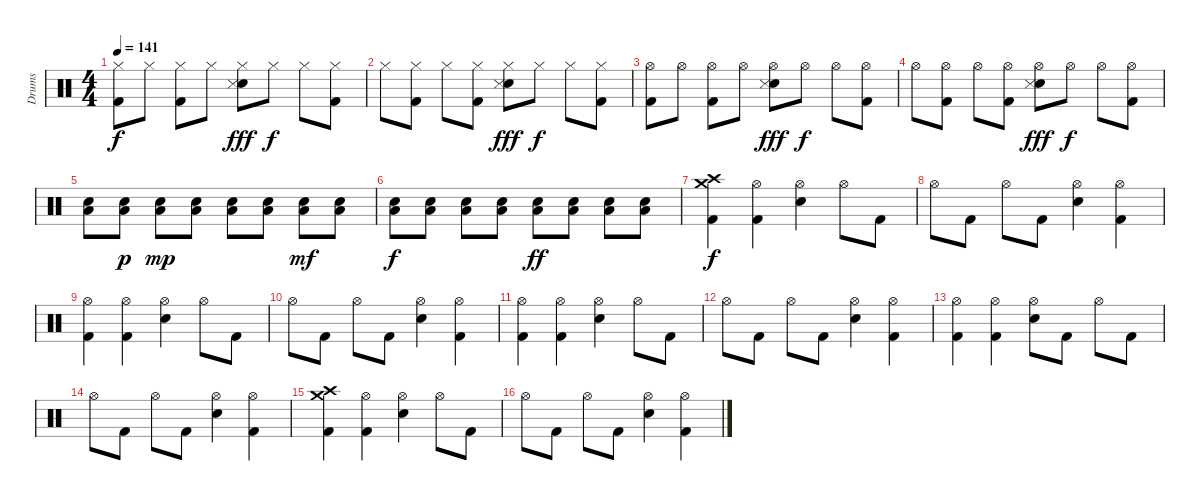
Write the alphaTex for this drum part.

\track ("Drums" "Drums") {instrument percussion}
\staff {score}
\articulation defaults
\ts (4 4)
\tempo 141
\clef neutral
\ks c
("Hi-Hat (closed)" "Kick (hit) 2").8{dy f} "Hi-Hat (closed)".8 ("Hi-Hat (closed)" "Kick (hit) 2").8 "Hi-Hat (closed)".8 ("Hi-Hat (closed)" "Electric Snare (hit)" "Metronome (hit)").8{dy fff} "Hi-Hat (closed)".8{dy f} "Hi-Hat (closed)".8 ("Hi-Hat (closed)" "Kick (hit) 2").8 |
"Hi-Hat (closed)".8 ("Hi-Hat (closed)" "Kick (hit) 2").8 "Hi-Hat (closed)".8 ("Hi-Hat (closed)" "Kick (hit) 2").8 ("Hi-Hat (closed)" "Electric Snare (hit)" "Metronome (hit)").8{dy fff} "Hi-Hat (closed)".8{dy f} "Hi-Hat (closed)".8 ("Hi-Hat (closed)" "Kick (hit) 2").8 |
("Hi-Hat (open)" "Kick (hit) 2").8 "Hi-Hat (open)".8 ("Hi-Hat (open)" "Kick (hit) 2").8 "Hi-Hat (open)".8 ("Hi-Hat (open)" "Electric Snare (hit)" "Metronome (hit)").8{dy fff} "Hi-Hat (open)".8{dy f} "Hi-Hat (open)".8 ("Hi-Hat (open)" "Kick (hit) 2").8 |
"Hi-Hat (open)".8 ("Hi-Hat (open)" "Kick (hit) 2").8 "Hi-Hat (open)".8 ("Hi-Hat (open)" "Kick (hit) 2").8 ("Hi-Hat (open)" "Electric Snare (hit)" "Metronome (hit)").8{dy fff} "Hi-Hat (open)".8{dy f} "Hi-Hat (open)".8 ("Hi-Hat (open)" "Kick (hit) 2").8 |
("Snare (hit) 2" "Low Tom (hit)").8 ("Snare (hit) 2" "Low Tom (hit)").8{dy p} ("Snare (hit) 2" "Low Tom (hit)").8{dy mp} ("Snare (hit) 2" "Low Tom (hit)").8 ("Snare (hit) 2" "Low Tom (hit)").8 ("Snare (hit) 2" "Low Tom (hit)").8 ("Snare (hit) 2" "Low Tom (hit)").8{dy mf} ("Snare (hit) 2" "Low Tom (hit)").8 |
("Snare (hit) 2" "Low Tom (hit)").8{dy f} ("Snare (hit) 2" "Low Tom (hit)").8 ("Snare (hit) 2" "Low Tom (hit)").8 ("Snare (hit) 2" "Low Tom (hit)").8 ("Snare (hit) 2" "Low Tom (hit)").8{dy ff} ("Snare (hit) 2" "Low Tom (hit)").8 ("Snare (hit) 2" "Low Tom (hit)").8 ("Snare (hit) 2" "Low Tom (hit)").8 |
("Crash high (hit)" "Crash medium (hit)" "Kick (hit) 2").4{dy f} ("Hi-Hat (open)" "Kick (hit) 2").4 ("Hi-Hat (open)" "Snare (hit) 2").4 "Hi-Hat (open)".8 "Kick (hit) 2".8 |
"Hi-Hat (open)".8 "Kick (hit) 2".8 "Hi-Hat (open)".8 "Kick (hit) 2".8 ("Hi-Hat (open)" "Snare (hit) 2").4 ("Hi-Hat (open)" "Kick (hit) 2").4 |
("Hi-Hat (open)" "Kick (hit) 2").4 ("Hi-Hat (open)" "Kick (hit) 2").4 ("Hi-Hat (open)" "Snare (hit) 2").4 "Hi-Hat (open)".8 "Kick (hit) 2".8 |
"Hi-Hat (open)".8 "Kick (hit) 2".8 "Hi-Hat (open)".8 "Kick (hit) 2".8 ("Hi-Hat (open)" "Snare (hit) 2").4 ("Hi-Hat (open)" "Kick (hit) 2").4 |
("Hi-Hat (open)" "Kick (hit) 2").4 ("Hi-Hat (open)" "Kick (hit) 2").4 ("Hi-Hat (open)" "Snare (hit) 2").4 "Hi-Hat (open)".8 "Kick (hit) 2".8 |
"Hi-Hat (open)".8 "Kick (hit) 2".8 "Hi-Hat (open)".8 "Kick (hit) 2".8 ("Hi-Hat (open)" "Snare (hit) 2").4 ("Hi-Hat (open)" "Kick (hit) 2").4 |
("Hi-Hat (open)" "Kick (hit) 2").4 ("Hi-Hat (open)" "Kick (hit) 2").4 ("Hi-Hat (open)" "Snare (hit) 2").8 "Kick (hit) 2".8 "Hi-Hat (open)".8 "Kick (hit) 2".8 |
"Hi-Hat (open)".8 "Kick (hit) 2".8 "Hi-Hat (open)".8 "Kick (hit) 2".8 ("Hi-Hat (open)" "Snare (hit) 2").4 ("Hi-Hat (open)" "Kick (hit) 2").4 |
("Crash high (hit)" "Crash medium (hit)" "Kick (hit) 2").4 ("Hi-Hat (open)" "Kick (hit) 2").4 ("Hi-Hat (open)" "Snare (hit) 2").4 "Hi-Hat (open)".8 "Kick (hit) 2".8 |
"Hi-Hat (open)".8 "Kick (hit) 2".8 "Hi-Hat (open)".8 "Kick (hit) 2".8 ("Hi-Hat (open)" "Snare (hit) 2").4 ("Hi-Hat (open)" "Kick (hit) 2").4
